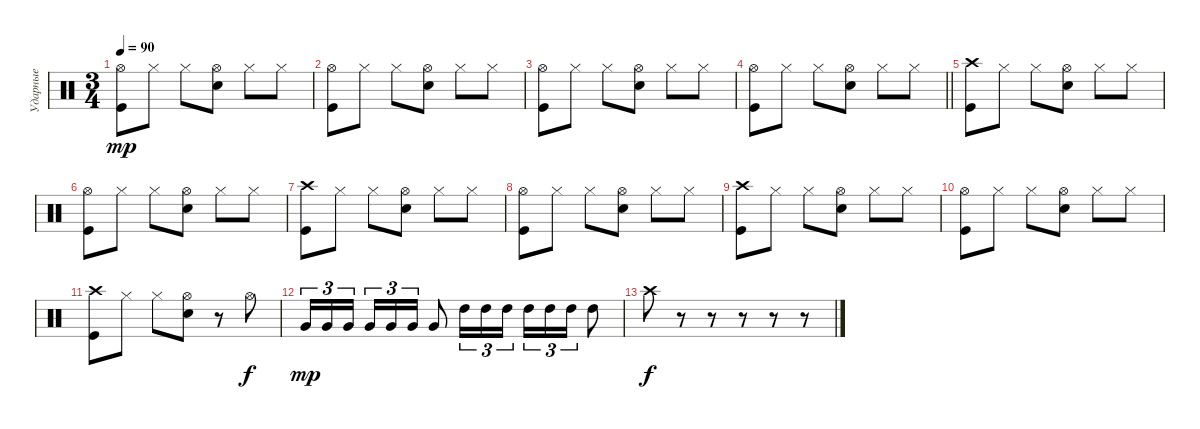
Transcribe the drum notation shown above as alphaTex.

\track ("Ударные" "Ударные") {instrument percussion}
\staff {score}
\articulation defaults
\ts (3 4)
\tempo 90
\clef neutral
\ks c
("Kick (hit)" "Hi-Hat (open)").8{dy mp} "Hi-Hat (closed)".8 "Hi-Hat (closed)".8 ("Snare (hit) 2" "Hi-Hat (open)").8 "Hi-Hat (closed)".8 "Hi-Hat (closed)".8 |
("Kick (hit)" "Hi-Hat (open)").8 "Hi-Hat (closed)".8 "Hi-Hat (closed)".8 ("Snare (hit) 2" "Hi-Hat (open)").8 "Hi-Hat (closed)".8 "Hi-Hat (closed)".8 |
("Kick (hit)" "Hi-Hat (open)").8 "Hi-Hat (closed)".8 "Hi-Hat (closed)".8 ("Snare (hit) 2" "Hi-Hat (open)").8 "Hi-Hat (closed)".8 "Hi-Hat (closed)".8 |
\barLineRight lightlight
("Kick (hit)" "Hi-Hat (open)").8 "Hi-Hat (closed)".8 "Hi-Hat (closed)".8 ("Snare (hit) 2" "Hi-Hat (open)").8 "Hi-Hat (closed)".8 "Hi-Hat (closed)".8 |
("Kick (hit)" "Crash high (hit)").8 "Hi-Hat (closed)".8 "Hi-Hat (closed)".8 ("Snare (hit) 2" "Hi-Hat (open)").8 "Hi-Hat (closed)".8 "Hi-Hat (closed)".8 |
("Kick (hit)" "Hi-Hat (open)").8 "Hi-Hat (closed)".8 "Hi-Hat (closed)".8 ("Snare (hit) 2" "Hi-Hat (open)").8 "Hi-Hat (closed)".8 "Hi-Hat (closed)".8 |
("Kick (hit)" "Crash high (hit)").8 "Hi-Hat (closed)".8 "Hi-Hat (closed)".8 ("Snare (hit) 2" "Hi-Hat (open)").8 "Hi-Hat (closed)".8 "Hi-Hat (closed)".8 |
("Kick (hit)" "Hi-Hat (open)").8 "Hi-Hat (closed)".8 "Hi-Hat (closed)".8 ("Snare (hit) 2" "Hi-Hat (open)").8 "Hi-Hat (closed)".8 "Hi-Hat (closed)".8 |
("Kick (hit)" "Crash high (hit)").8 "Hi-Hat (closed)".8 "Hi-Hat (closed)".8 ("Snare (hit) 2" "Hi-Hat (open)").8 "Hi-Hat (closed)".8 "Hi-Hat (closed)".8 |
("Kick (hit)" "Hi-Hat (open)").8 "Hi-Hat (closed)".8 "Hi-Hat (closed)".8 ("Snare (hit) 2" "Hi-Hat (open)").8 "Hi-Hat (closed)".8 "Hi-Hat (closed)".8 |
("Kick (hit)" "Crash high (hit)").8 "Hi-Hat (closed)".8 "Hi-Hat (closed)".8 ("Snare (hit) 2" "Hi-Hat (open)").8 r.8 "Hi-Hat (open)".8{dy f} |
"Very Low Tom (hit)".16{tu (3 2) dy mp} "Very Low Tom (hit)".16{tu (3 2)} "Very Low Tom (hit)".16{tu (3 2)} "Very Low Tom (hit)".16{tu (3 2)} "Very Low Tom (hit)".16{tu (3 2)} "Very Low Tom (hit)".16{tu (3 2)} "Very Low Tom (hit)".8 "High Tom (hit)".16{tu (3 2)} "High Tom (hit)".16{tu (3 2)} "High Tom (hit)".16{tu (3 2)} "High Tom (hit)".16{tu (3 2)} "High Tom (hit)".16{tu (3 2)} "High Tom (hit)".16{tu (3 2)} "High Tom (hit)".8 |
"Crash high (hit)".8{dy f} r.8 r.8 r.8 r.8 r.8
